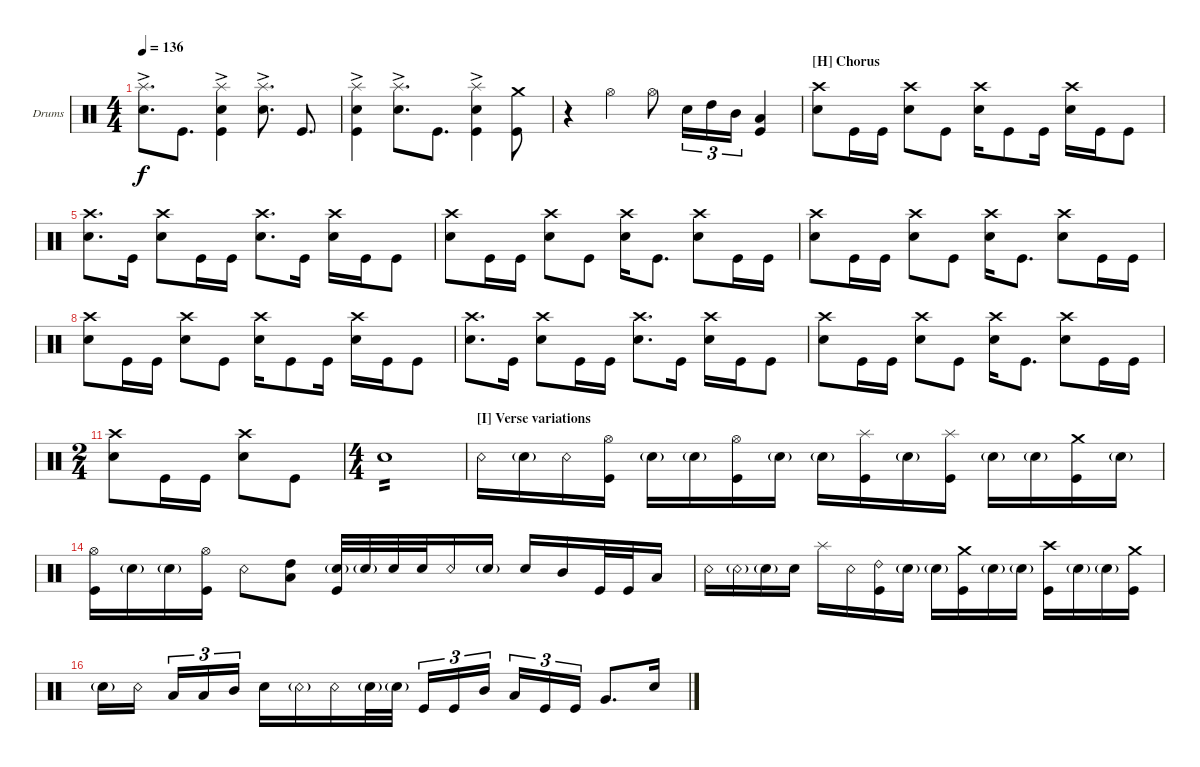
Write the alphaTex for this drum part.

\defaultSystemsLayout 4
\bracketExtendMode groupsimilarinstruments
\firstSystemTrackNameOrientation horizontal
\otherSystemsTrackNameOrientation horizontal
\defaultBarNumberDisplay FirstOfSystem
\track ("Drumkit" "Drums") {multiBarRest instrument percussion}
\staff {score}
\articulation defaults
\ts (4 4)
\tempo 136
\clef neutral
\ks c
("Splash (hit)" "Snare (hit) 2"{ac}).8{d dy f} "Kick (hit)".8{d} ("Snare (hit) 2"{ac} "Kick (hit)" "Splash (hit)").4 ("Splash (hit)" "Snare (hit) 2"{ac}).8{d} "Kick (hit)".8{d} |
("Snare (hit) 2"{ac} "Kick (hit)" "Splash (hit)").4 ("Splash (hit)" "Snare (hit) 2"{ac}).8{d} "Kick (hit)".8{d} ("Snare (hit) 2"{ac} "Kick (hit)" "Splash (hit)").4 ("Crash medium (hit)" "Kick (hit)").8 |
r.4 "Hi-Hat (open)".4 "Hi-Hat (open)".8 "Snare (hit) 2".16{tu (3 2)} "High Tom (hit)".16{tu (3 2)} "Mid Tom (hit)".16{tu (3 2)} ("Low Tom (hit)" "Kick (hit)").4 |
\section ("H" "Chorus")
("Crash high (hit)" "Snare (hit) 2").8 "Kick (hit)".16 "Kick (hit)".16 ("Crash high (hit)" "Snare (hit) 2").8 "Kick (hit)".8 ("Crash high (hit)" "Snare (hit) 2").16 "Kick (hit)".8 "Kick (hit)".16 ("Crash high (hit)" "Snare (hit) 2").16 "Kick (hit)".16 "Kick (hit)".8 |
("Snare (hit) 2" "Crash high (hit)").8{d} "Kick (hit)".16 ("Snare (hit) 2" "Crash high (hit)").8 "Kick (hit)".16 "Kick (hit)".16 ("Snare (hit) 2" "Crash high (hit)").8{d} "Kick (hit)".16 ("Snare (hit) 2" "Crash high (hit)").16 "Kick (hit)".16 "Kick (hit)".8 |
("Crash high (hit)" "Snare (hit) 2").8 "Kick (hit)".16 "Kick (hit)".16 ("Crash high (hit)" "Snare (hit) 2").8 "Kick (hit)".8 ("Crash high (hit)" "Snare (hit) 2").16 "Kick (hit)".8{d} ("Crash high (hit)" "Snare (hit) 2").8 "Kick (hit)".16 "Kick (hit)".16 |
("Crash high (hit)" "Snare (hit) 2").8 "Kick (hit)".16 "Kick (hit)".16 ("Crash high (hit)" "Snare (hit) 2").8 "Kick (hit)".8 ("Crash high (hit)" "Snare (hit) 2").16 "Kick (hit)".8{d} ("Crash high (hit)" "Snare (hit) 2").8 "Kick (hit)".16 "Kick (hit)".16 |
("Crash high (hit)" "Snare (hit) 2").8 "Kick (hit)".16 "Kick (hit)".16 ("Crash high (hit)" "Snare (hit) 2").8 "Kick (hit)".8 ("Crash high (hit)" "Snare (hit) 2").16 "Kick (hit)".8 "Kick (hit)".16 ("Crash high (hit)" "Snare (hit) 2").16 "Kick (hit)".16 "Kick (hit)".8 |
("Snare (hit) 2" "Crash high (hit)").8{d} "Kick (hit)".16 ("Snare (hit) 2" "Crash high (hit)").8 "Kick (hit)".16 "Kick (hit)".16 ("Snare (hit) 2" "Crash high (hit)").8{d} "Kick (hit)".16 ("Snare (hit) 2" "Crash high (hit)").16 "Kick (hit)".16 "Kick (hit)".8 |
("Crash high (hit)" "Snare (hit) 2").8 "Kick (hit)".16 "Kick (hit)".16 ("Crash high (hit)" "Snare (hit) 2").8 "Kick (hit)".8 ("Crash high (hit)" "Snare (hit) 2").16 "Kick (hit)".8{d} ("Crash high (hit)" "Snare (hit) 2").8 "Kick (hit)".16 "Kick (hit)".16 |
\ts (2 4)
("Crash high (hit)" "Snare (hit) 2").8 "Kick (hit)".16 "Kick (hit)".16 ("Crash high (hit)" "Snare (hit) 2").8 "Kick (hit)".8 |
\ts (4 4)
"Snare (hit) 2".1{tp 2} |
\section ("I" "Verse variations")
"Snare (rim shot)".16 "Snare (hit) 2"{g}.16 "Snare (rim shot)".16 ("Kick (hit)" "Hi-Hat (open)").16 "Snare (hit) 2"{g}.16 "Snare (hit) 2"{g}.16 ("Kick (hit)" "Hi-Hat (open)").16 "Snare (hit) 2"{g}.16 "Snare (hit) 2"{g}.16 ("Kick (hit)" "Splash (hit)").16 "Snare (hit) 2"{g}.16 ("Kick (hit)" "Splash (hit)").16 "Snare (hit) 2"{g}.16 "Snare (hit) 2"{g}.16 ("Kick (hit)" "Crash medium (hit)").16 "Snare (hit) 2"{g}.16 |
("Kick (hit)" "Hi-Hat (open)").16 "Snare (hit) 2"{g}.16 "Snare (hit) 2"{g}.16 ("Kick (hit)" "Hi-Hat (open)").16 "Snare (rim shot)".8 ("Low Tom (hit)" "High Tom (hit)").8 ("Kick (hit)" "Snare (hit) 2"{g}).32 "Snare (hit) 2"{g}.32 "Snare (hit) 2".32 "Snare (hit) 2".32 "Snare (rim shot)".16 "Snare (hit) 2"{g}.16 "Snare (hit) 2".16 "Mid Tom (hit)".16 "Kick (hit)".32 "Kick (hit)".32 "Low Tom (hit)".16 |
"Snare (rim shot)".16 "Snare (rim shot)"{g}.16 "Snare (hit) 2"{g}.16 "Snare (hit) 2".16 "Splash (hit)".16 "Snare (rim shot)".16 ("Kick (hit)" "Ride (bell) 2").16 "Snare (hit) 2"{g}.16 "Snare (hit) 2"{g}.16 ("Kick (hit)" "Crash medium (hit)").16 "Snare (hit) 2"{g}.16 "Snare (hit) 2"{g}.16 ("Kick (hit)" "Crash high (hit)").16 "Snare (hit) 2"{g}.16 "Snare (hit) 2"{g}.16 ("Kick (hit)" "Crash medium (hit)").16 |
"Snare (hit) 2"{g}.16 "Snare (rim shot)".16 "Low Tom (hit)".16{tu (3 2)} "Low Tom (hit)".16{tu (3 2)} "Mid Tom (hit)".16{tu (3 2)} "Snare (hit) 2".16 "Snare (rim shot)"{g}.16 "Snare (rim shot)".16 "Snare (hit) 2"{g}.32 "Snare (hit) 2"{g}.32 "Kick (hit)".16{tu (3 2)} "Kick (hit)".16{tu (3 2)} "Mid Tom (hit)".16{tu (3 2)} "Low Tom (hit)".16{tu (3 2)} "Kick (hit)".16{tu (3 2)} "Kick (hit)".16{tu (3 2)} "Very Low Tom (hit)".8{d} "Snare (hit) 2".16
